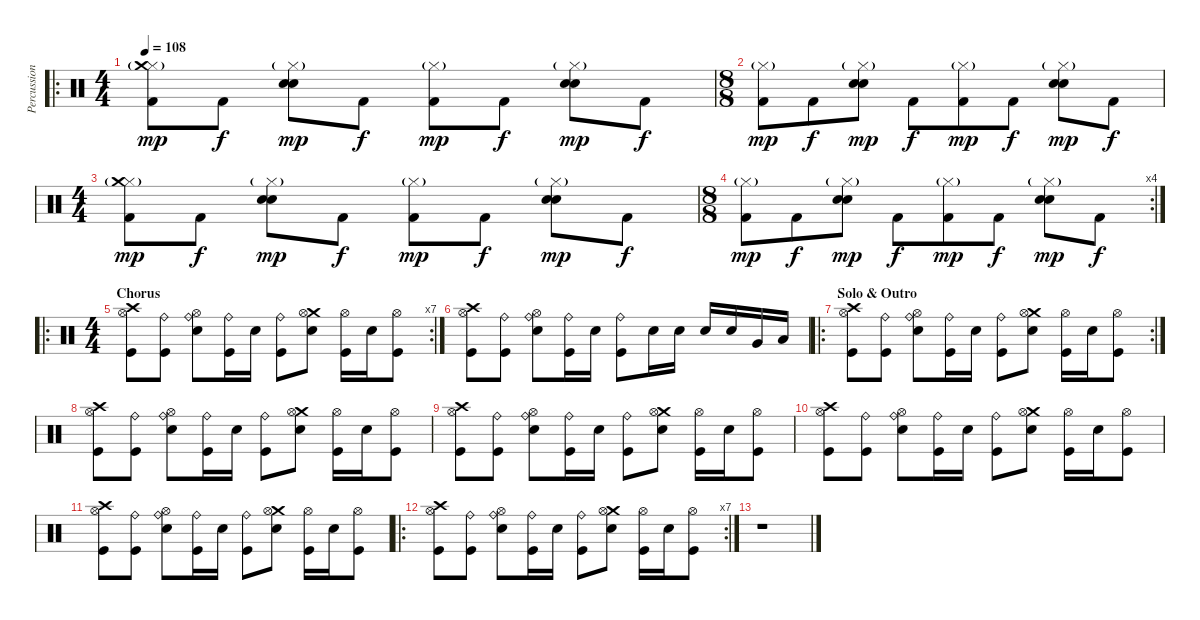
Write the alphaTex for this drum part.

\track ("Percussion" "Percussion") {instrument percussion}
\staff {score}
\articulation defaults
\ro
\ts (4 4)
\tempo 108
\clef neutral
\ks c
("Hi-Hat (closed)"{g} "Crash medium (hit)" "Kick (hit) 2").8{dy mp} "Kick (hit) 2".8{dy f} ("Hi-Hat (closed)"{g} "Electric Snare (hit)" "Snare (hit) 2").8{dy mp} "Kick (hit) 2".8{dy f} ("Hi-Hat (closed)"{g} "Kick (hit) 2").8{dy mp} "Kick (hit) 2".8{dy f} ("Hi-Hat (closed)"{g} "Electric Snare (hit)" "Snare (hit) 2").8{dy mp} "Kick (hit) 2".8{dy f} |
\ts (8 8)
("Hi-Hat (closed)"{g} "Kick (hit) 2").8{dy mp} "Kick (hit) 2".8{dy f} ("Hi-Hat (closed)"{g} "Electric Snare (hit)" "Snare (hit) 2").8{dy mp} "Kick (hit) 2".8{dy f} ("Hi-Hat (closed)"{g} "Kick (hit) 2").8{dy mp} "Kick (hit) 2".8{dy f} ("Hi-Hat (closed)"{g} "Electric Snare (hit)" "Snare (hit) 2").8{dy mp} "Kick (hit) 2".8{dy f} |
\ts (4 4)
("Hi-Hat (closed)"{g} "Crash medium (hit)" "Kick (hit) 2").8{dy mp} "Kick (hit) 2".8{dy f} ("Hi-Hat (closed)"{g} "Electric Snare (hit)" "Snare (hit) 2").8{dy mp} "Kick (hit) 2".8{dy f} ("Hi-Hat (closed)"{g} "Kick (hit) 2").8{dy mp} "Kick (hit) 2".8{dy f} ("Hi-Hat (closed)"{g} "Electric Snare (hit)" "Snare (hit) 2").8{dy mp} "Kick (hit) 2".8{dy f} |
\rc 4
\ts (8 8)
("Hi-Hat (closed)"{g} "Kick (hit) 2").8{dy mp} "Kick (hit) 2".8{dy f} ("Hi-Hat (closed)"{g} "Electric Snare (hit)" "Snare (hit) 2").8{dy mp} "Kick (hit) 2".8{dy f} ("Hi-Hat (closed)"{g} "Kick (hit) 2").8{dy mp} "Kick (hit) 2".8{dy f} ("Hi-Hat (closed)"{g} "Electric Snare (hit)" "Snare (hit) 2").8{dy mp} "Kick (hit) 2".8{dy f} |
\ro
\rc 7
\ts (4 4)
\section ("" "Chorus")
("Crash high (hit)" "Hi-Hat (open)" "Kick (hit)").8 ("Ride (bell)" "Kick (hit)").8 ("Ride (bell)" "Hi-Hat (open)" "Electric Snare (hit)").8 ("Ride (bell)" "Kick (hit)").16 "Electric Snare (hit)".16 ("Ride (bell)" "Kick (hit)").8 ("Crash medium (hit)" "Hi-Hat (open)" "Electric Snare (hit)").8 ("Hi-Hat (open)" "Kick (hit)").16 "Electric Snare (hit)".16 ("Hi-Hat (open)" "Kick (hit)").8 |
("Crash high (hit)" "Hi-Hat (open)" "Kick (hit)").8 ("Ride (bell)" "Kick (hit)").8 ("Ride (bell)" "Hi-Hat (open)" "Electric Snare (hit)").8 ("Ride (bell)" "Kick (hit)").16 "Electric Snare (hit)".16 ("Ride (bell)" "Kick (hit)").8 "Electric Snare (hit)".16 "Electric Snare (hit)".16 "Electric Snare (hit)".16 "Electric Snare (hit)".16 "Very Low Tom (hit)".16 "Low Floor Tom (hit)".16 |
\ro
\rc 2
\section ("" "Solo & Outro")
("Crash high (hit)" "Hi-Hat (open)" "Kick (hit)").8 ("Ride (bell)" "Kick (hit)").8 ("Ride (bell)" "Hi-Hat (open)" "Electric Snare (hit)").8 ("Ride (bell)" "Kick (hit)").16 "Electric Snare (hit)".16 ("Ride (bell)" "Kick (hit)").8 ("Crash medium (hit)" "Hi-Hat (open)" "Electric Snare (hit)").8 ("Hi-Hat (open)" "Kick (hit)").16 "Electric Snare (hit)".16 ("Hi-Hat (open)" "Kick (hit)").8 |
("Crash high (hit)" "Hi-Hat (open)" "Kick (hit)").8 ("Ride (bell)" "Kick (hit)").8 ("Ride (bell)" "Hi-Hat (open)" "Electric Snare (hit)").8 ("Ride (bell)" "Kick (hit)").16 "Electric Snare (hit)".16 ("Ride (bell)" "Kick (hit)").8 ("Crash medium (hit)" "Hi-Hat (open)" "Electric Snare (hit)").8 ("Hi-Hat (open)" "Kick (hit)").16 "Electric Snare (hit)".16 ("Hi-Hat (open)" "Kick (hit)").8 |
("Crash high (hit)" "Hi-Hat (open)" "Kick (hit)").8 ("Ride (bell)" "Kick (hit)").8 ("Ride (bell)" "Hi-Hat (open)" "Electric Snare (hit)").8 ("Ride (bell)" "Kick (hit)").16 "Electric Snare (hit)".16 ("Ride (bell)" "Kick (hit)").8 ("Crash medium (hit)" "Hi-Hat (open)" "Electric Snare (hit)").8 ("Hi-Hat (open)" "Kick (hit)").16 "Electric Snare (hit)".16 ("Hi-Hat (open)" "Kick (hit)").8 |
("Crash high (hit)" "Hi-Hat (open)" "Kick (hit)").8 ("Ride (bell)" "Kick (hit)").8 ("Ride (bell)" "Hi-Hat (open)" "Electric Snare (hit)").8 ("Ride (bell)" "Kick (hit)").16 "Electric Snare (hit)".16 ("Ride (bell)" "Kick (hit)").8 ("Crash medium (hit)" "Hi-Hat (open)" "Electric Snare (hit)").8 ("Hi-Hat (open)" "Kick (hit)").16 "Electric Snare (hit)".16 ("Hi-Hat (open)" "Kick (hit)").8 |
("Crash high (hit)" "Hi-Hat (open)" "Kick (hit)").8 ("Ride (bell)" "Kick (hit)").8 ("Ride (bell)" "Hi-Hat (open)" "Electric Snare (hit)").8 ("Ride (bell)" "Kick (hit)").16 "Electric Snare (hit)".16 ("Ride (bell)" "Kick (hit)").8 ("Crash medium (hit)" "Hi-Hat (open)" "Electric Snare (hit)").8 ("Hi-Hat (open)" "Kick (hit)").16 "Electric Snare (hit)".16 ("Hi-Hat (open)" "Kick (hit)").8 |
\ro
\rc 7
("Crash high (hit)" "Hi-Hat (open)" "Kick (hit)").8 ("Ride (bell)" "Kick (hit)").8 ("Ride (bell)" "Hi-Hat (open)" "Electric Snare (hit)").8 ("Ride (bell)" "Kick (hit)").16 "Electric Snare (hit)".16 ("Ride (bell)" "Kick (hit)").8 ("Crash medium (hit)" "Hi-Hat (open)" "Electric Snare (hit)").8 ("Hi-Hat (open)" "Kick (hit)").16 "Electric Snare (hit)".16 ("Hi-Hat (open)" "Kick (hit)").8 |
r.1
